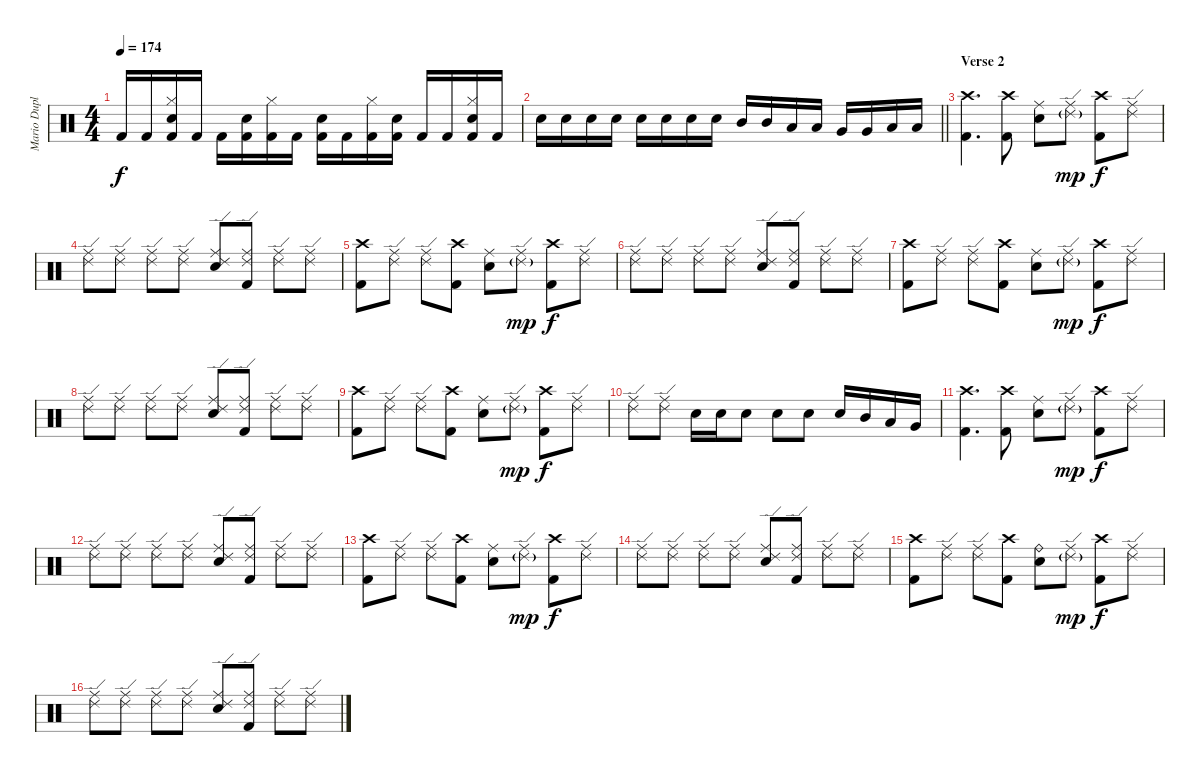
\track ("Mario Duplantier - DRUMS" "Mario Dupl") {instrument percussion}
\staff {score}
\articulation defaults
\ts (4 4)
\tempo 174
\clef neutral
\ks c "Kick (hit) 2".16{dy f} "Kick (hit) 2".16
("Hi-Hat (closed)" "Electric Snare (hit)" "Kick (hit) 2").16 "Kick (hit) 2".16 "Kick (hit) 2".16 ("Electric Snare (hit)" "Kick (hit) 2").16 ("Hi-Hat (closed)" "Kick (hit) 2").16 "Kick (hit) 2".16 ("Electric Snare (hit)" "Kick (hit) 2").16 "Kick (hit) 2".16 ("Hi-Hat (closed)" "Kick (hit) 2").16 ("Electric Snare (hit)" "Kick (hit) 2").16 "Kick (hit) 2".16 "Kick (hit) 2".16 ("Hi-Hat (closed)" "Electric Snare (hit)" "Kick (hit) 2").16 "Kick (hit) 2".16 |
\barLineRight lightlight "Electric Snare (hit)".16 "Electric Snare (hit)".16 "Electric Snare (hit)".16 "Electric Snare (hit)".16 "Electric Snare (hit)".16 "Electric Snare (hit)".16 "Electric Snare (hit)".16 "Electric Snare (hit)".16 "Mid Tom (hit)".16 "Mid Tom (hit)".16 "Low Tom (hit)".16 "Low Tom (hit)".16 "Very Low Tom (hit)".16 "Very Low Tom (hit)".16 "Low Floor Tom (hit)".16 "Low Floor Tom (hit)".16
|
\section ("" "Verse 2")
("Crash high (hit)" "Kick (hit) 2").4{d} ("Crash high (hit)" "Kick (hit) 2").8 ("Ride (middle)" "Electric Snare (hit)").8 ("Ride (middle)" "Ride (edge) 2"{g}).8{dy mp} ("Crash high (hit)" "Kick (hit) 2").8{dy f} ("Ride (middle)" "Ride (edge) 2").8 |
("Ride (middle)" "Ride (edge) 2").8 ("Ride (middle)" "Ride (edge) 2").8 ("Ride (middle)" "Ride (edge) 2").8 ("Ride (middle)" "Ride (edge) 2").8 ("Ride (middle)" "Ride (edge) 2" "Electric Snare (hit)").8 ("Ride (middle)" "Ride (edge) 2" "Kick (hit) 2").8 ("Ride (middle)" "Ride (edge) 2").8 ("Ride (middle)" "Ride (edge) 2").8 |
("Crash high (hit)" "Kick (hit) 2").8 ("Ride (middle)" "Ride (edge) 2").8 ("Ride (middle)" "Ride (edge) 2").8 ("Crash high (hit)" "Kick (hit) 2").8 ("Ride (middle)" "Electric Snare (hit)").8 ("Ride (middle)" "Ride (edge) 2"{g}).8{dy mp} ("Crash high (hit)" "Kick (hit) 2").8{dy f} ("Ride (middle)" "Ride (edge) 2").8 |
("Ride (middle)" "Ride (edge) 2").8 ("Ride (middle)" "Ride (edge) 2").8 ("Ride (middle)" "Ride (edge) 2").8 ("Ride (middle)" "Ride (edge) 2").8 ("Ride (middle)" "Ride (edge) 2" "Electric Snare (hit)").8 ("Ride (middle)" "Ride (edge) 2" "Kick (hit) 2").8 ("Ride (middle)" "Ride (edge) 2").8 ("Ride (middle)" "Ride (edge) 2").8 |
("Crash high (hit)" "Kick (hit) 2").8 ("Ride (middle)" "Ride (edge) 2").8 ("Ride (middle)" "Ride (edge) 2").8 ("Crash high (hit)" "Kick (hit) 2").8 ("Ride (middle)" "Electric Snare (hit)").8 ("Ride (middle)" "Ride (edge) 2"{g}).8{dy mp} ("Crash high (hit)" "Kick (hit) 2").8{dy f} ("Ride (middle)" "Ride (edge) 2").8 |
("Ride (middle)" "Ride (edge) 2").8 ("Ride (middle)" "Ride (edge) 2").8 ("Ride (middle)" "Ride (edge) 2").8 ("Ride (middle)" "Ride (edge) 2").8 ("Ride (middle)" "Ride (edge) 2" "Electric Snare (hit)").8 ("Ride (middle)" "Ride (edge) 2" "Kick (hit) 2").8 ("Ride (middle)" "Ride (edge) 2").8 ("Ride (middle)" "Ride (edge) 2").8 |
("Crash high (hit)" "Kick (hit) 2").8 ("Ride (middle)" "Ride (edge) 2").8 ("Ride (middle)" "Ride (edge) 2").8 ("Crash high (hit)" "Kick (hit) 2").8 ("Ride (middle)" "Electric Snare (hit)").8 ("Ride (middle)" "Ride (edge) 2"{g}).8{dy mp} ("Crash high (hit)" "Kick (hit) 2").8{dy f} ("Ride (middle)" "Ride (edge) 2").8 |
("Ride (middle)" "Ride (edge) 2").8 ("Ride (middle)" "Ride (edge) 2").8 "Electric Snare (hit)".16 "Electric Snare (hit)".16 "Electric Snare (hit)".8 "Electric Snare (hit)".8 "Electric Snare (hit)".8 "Electric Snare (hit)".16 "Mid Tom (hit)".16 "Low Tom (hit)".16 "Very Low Tom (hit)".16 |
("Crash high (hit)" "Kick (hit) 2").4{d} ("Crash high (hit)" "Kick (hit) 2").8 ("Ride (middle)" "Electric Snare (hit)").8 ("Ride (middle)" "Ride (edge) 2"{g}).8{dy mp} ("Crash high (hit)" "Kick (hit) 2").8{dy f} ("Ride (middle)" "Ride (edge) 2").8 |
("Ride (middle)" "Ride (edge) 2").8 ("Ride (middle)" "Ride (edge) 2").8 ("Ride (middle)" "Ride (edge) 2").8 ("Ride (middle)" "Ride (edge) 2").8 ("Ride (middle)" "Ride (edge) 2" "Electric Snare (hit)").8 ("Ride (middle)" "Ride (edge) 2" "Kick (hit) 2").8 ("Ride (middle)" "Ride (edge) 2").8 ("Ride (middle)" "Ride (edge) 2").8 |
("Crash high (hit)" "Kick (hit) 2").8 ("Ride (middle)" "Ride (edge) 2").8 ("Ride (middle)" "Ride (edge) 2").8 ("Crash high (hit)" "Kick (hit) 2").8 ("Ride (middle)" "Electric Snare (hit)").8 ("Ride (middle)" "Ride (edge) 2"{g}).8{dy mp} ("Crash high (hit)" "Kick (hit) 2").8{dy f} ("Ride (middle)" "Ride (edge) 2").8 |
("Ride (middle)" "Ride (edge) 2").8 ("Ride (middle)" "Ride (edge) 2").8 ("Ride (middle)" "Ride (edge) 2").8 ("Ride (middle)" "Ride (edge) 2").8 ("Ride (middle)" "Ride (edge) 2" "Electric Snare (hit)").8 ("Ride (middle)" "Ride (edge) 2" "Kick (hit) 2").8 ("Ride (middle)" "Ride (edge) 2").8 ("Ride (middle)" "Ride (edge) 2").8 |
("Crash high (hit)" "Kick (hit) 2").8 ("Ride (middle)" "Ride (edge) 2").8 ("Ride (middle)" "Ride (edge) 2").8 ("Crash high (hit)" "Kick (hit) 2").8 ("Ride (bell)" "Electric Snare (hit)").8 ("Ride (middle)" "Ride (edge) 2"{g}).8{dy mp} ("Crash high (hit)" "Kick (hit) 2").8{dy f} ("Ride (middle)" "Ride (edge) 2").8 |
("Ride (middle)" "Ride (edge) 2").8 ("Ride (middle)" "Ride (edge) 2").8 ("Ride (middle)" "Ride (edge) 2").8 ("Ride (middle)" "Ride (edge) 2").8 ("Ride (middle)" "Ride (edge) 2" "Electric Snare (hit)").8 ("Ride (middle)" "Ride (edge) 2" "Kick (hit) 2").8 ("Ride (middle)" "Ride (edge) 2").8 ("Ride (middle)" "Ride (edge) 2").8
